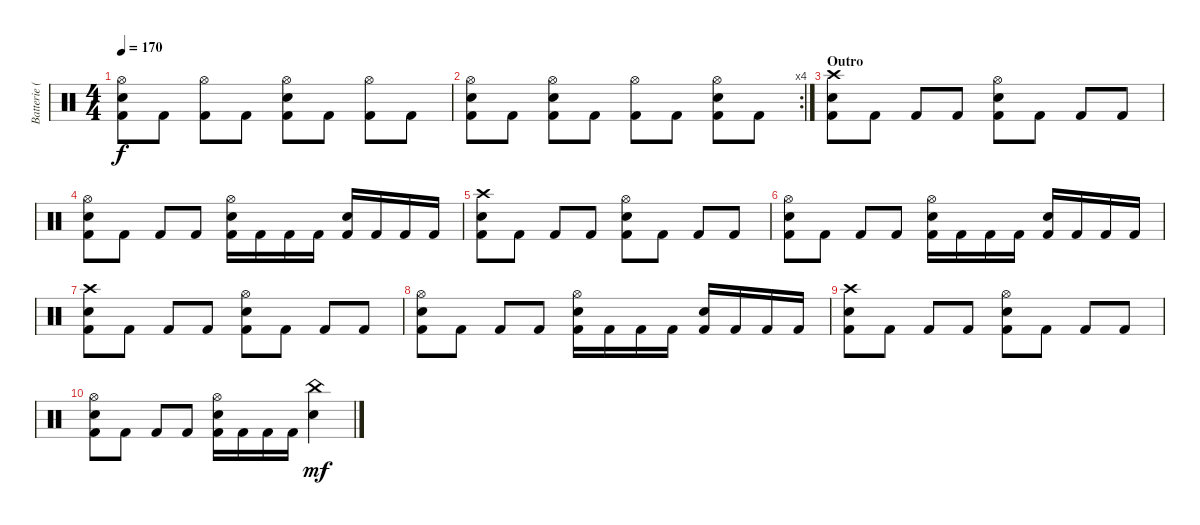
\track ("Batterie (Racci \"Sketchy\" Shay)" "Batterie (") {instrument percussion}
\staff {score}
\articulation defaults
\ts (4 4)
\tempo 170
\clef neutral
\ks c
("Hi-Hat (open)" "Electric Snare (hit)" "Kick (hit) 2").8{dy f} "Kick (hit) 2".8 ("Hi-Hat (open)" "Kick (hit) 2").8 "Kick (hit) 2".8 ("Hi-Hat (open)" "Electric Snare (hit)" "Kick (hit) 2").8 "Kick (hit) 2".8 ("Hi-Hat (open)" "Kick (hit) 2").8 "Kick (hit) 2".8 |
\rc 4
("Hi-Hat (open)" "Electric Snare (hit)" "Kick (hit) 2").8 "Kick (hit) 2".8 ("Hi-Hat (open)" "Electric Snare (hit)" "Kick (hit) 2").8 "Kick (hit) 2".8 ("Hi-Hat (open)" "Kick (hit) 2").8 "Kick (hit) 2".8 ("Hi-Hat (open)" "Electric Snare (hit)" "Kick (hit) 2").8 "Kick (hit) 2".8 |
\section ("" "Outro")
("Crash high (hit)" "Electric Snare (hit)" "Kick (hit) 2").8 "Kick (hit) 2".8 "Kick (hit) 2".8 "Kick (hit) 2".8 ("Hi-Hat (open)" "Electric Snare (hit)" "Kick (hit) 2").8 "Kick (hit) 2".8 "Kick (hit) 2".8 "Kick (hit) 2".8 |
("Hi-Hat (open)" "Electric Snare (hit)" "Kick (hit) 2").8 "Kick (hit) 2".8 "Kick (hit) 2".8 "Kick (hit) 2".8 ("Hi-Hat (open)" "Electric Snare (hit)" "Kick (hit) 2").16 "Kick (hit) 2".16 "Kick (hit) 2".16 "Kick (hit) 2".16 ("Electric Snare (hit)" "Kick (hit) 2").16 "Kick (hit) 2".16 "Kick (hit) 2".16 "Kick (hit) 2".16 |
("Crash high (hit)" "Electric Snare (hit)" "Kick (hit) 2").8 "Kick (hit) 2".8 "Kick (hit) 2".8 "Kick (hit) 2".8 ("Hi-Hat (open)" "Electric Snare (hit)" "Kick (hit) 2").8 "Kick (hit) 2".8 "Kick (hit) 2".8 "Kick (hit) 2".8 |
("Hi-Hat (open)" "Electric Snare (hit)" "Kick (hit) 2").8 "Kick (hit) 2".8 "Kick (hit) 2".8 "Kick (hit) 2".8 ("Hi-Hat (open)" "Electric Snare (hit)" "Kick (hit) 2").16 "Kick (hit) 2".16 "Kick (hit) 2".16 "Kick (hit) 2".16 ("Electric Snare (hit)" "Kick (hit) 2").16 "Kick (hit) 2".16 "Kick (hit) 2".16 "Kick (hit) 2".16 |
("Crash high (hit)" "Electric Snare (hit)" "Kick (hit) 2").8 "Kick (hit) 2".8 "Kick (hit) 2".8 "Kick (hit) 2".8 ("Hi-Hat (open)" "Electric Snare (hit)" "Kick (hit) 2").8 "Kick (hit) 2".8 "Kick (hit) 2".8 "Kick (hit) 2".8 |
("Hi-Hat (open)" "Electric Snare (hit)" "Kick (hit) 2").8 "Kick (hit) 2".8 "Kick (hit) 2".8 "Kick (hit) 2".8 ("Hi-Hat (open)" "Electric Snare (hit)" "Kick (hit) 2").16 "Kick (hit) 2".16 "Kick (hit) 2".16 "Kick (hit) 2".16 ("Electric Snare (hit)" "Kick (hit) 2").16 "Kick (hit) 2".16 "Kick (hit) 2".16 "Kick (hit) 2".16 |
("Crash high (hit)" "Electric Snare (hit)" "Kick (hit) 2").8 "Kick (hit) 2".8 "Kick (hit) 2".8 "Kick (hit) 2".8 ("Hi-Hat (open)" "Electric Snare (hit)" "Kick (hit) 2").8 "Kick (hit) 2".8 "Kick (hit) 2".8 "Kick (hit) 2".8 |
("Hi-Hat (open)" "Electric Snare (hit)" "Kick (hit) 2").8 "Kick (hit) 2".8 "Kick (hit) 2".8 "Kick (hit) 2".8 ("Hi-Hat (open)" "Electric Snare (hit)" "Kick (hit) 2").16 "Kick (hit) 2".16 "Kick (hit) 2".16 "Kick (hit) 2".16 ("China (hit)" "Electric Snare (hit)").4{dy mf}
